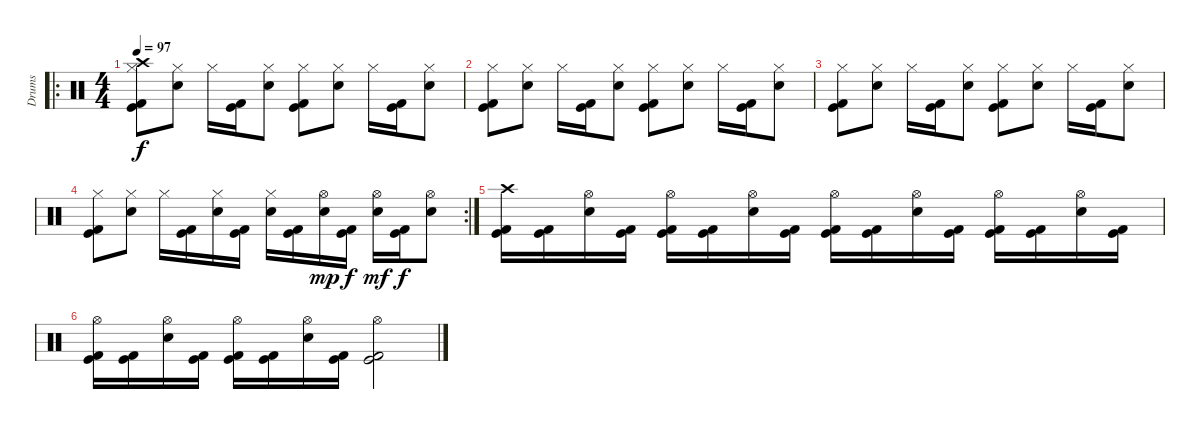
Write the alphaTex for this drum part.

\track ("Drums" "Drums") {instrument percussion}
\staff {score}
\articulation defaults
\ro
\ts (4 4)
\tempo 97
\clef neutral
\ks c
("Hi-Hat (closed)" "Crash high (hit)" "Kick (hit) 2" "Kick (hit)").8{dy f} ("Hi-Hat (closed)" "Electric Snare (hit)").8 "Hi-Hat (closed)".16 ("Kick (hit)" "Kick (hit) 2").16 ("Hi-Hat (closed)" "Electric Snare (hit)").8 ("Hi-Hat (closed)" "Kick (hit)" "Kick (hit) 2").8 ("Hi-Hat (closed)" "Electric Snare (hit)").8 "Hi-Hat (closed)".16 ("Kick (hit) 2" "Kick (hit)").16 ("Hi-Hat (closed)" "Electric Snare (hit)").8 |
("Hi-Hat (closed)" "Kick (hit) 2" "Kick (hit)").8 ("Hi-Hat (closed)" "Electric Snare (hit)").8 "Hi-Hat (closed)".16 ("Kick (hit)" "Kick (hit) 2").16 ("Hi-Hat (closed)" "Electric Snare (hit)").8 ("Hi-Hat (closed)" "Kick (hit)" "Kick (hit) 2").8 ("Hi-Hat (closed)" "Electric Snare (hit)").8 "Hi-Hat (closed)".16 ("Kick (hit) 2" "Kick (hit)").16 ("Hi-Hat (closed)" "Electric Snare (hit)").8 |
("Hi-Hat (closed)" "Kick (hit) 2" "Kick (hit)").8 ("Hi-Hat (closed)" "Electric Snare (hit)").8 "Hi-Hat (closed)".16 ("Kick (hit)" "Kick (hit) 2").16 ("Hi-Hat (closed)" "Electric Snare (hit)").8 ("Hi-Hat (closed)" "Kick (hit)" "Kick (hit) 2").8 ("Hi-Hat (closed)" "Electric Snare (hit)").8 "Hi-Hat (closed)".16 ("Kick (hit) 2" "Kick (hit)").16 ("Hi-Hat (closed)" "Electric Snare (hit)").8 |
\rc 2
("Hi-Hat (closed)" "Kick (hit) 2" "Kick (hit)").8 ("Hi-Hat (closed)" "Electric Snare (hit)").8 "Hi-Hat (closed)".16 ("Kick (hit)" "Kick (hit) 2").16 ("Hi-Hat (closed)" "Electric Snare (hit)").16 ("Kick (hit)" "Kick (hit) 2").16 ("Hi-Hat (closed)" "Electric Snare (hit)").16 ("Kick (hit)" "Kick (hit) 2").16 ("Hi-Hat (open)" "Electric Snare (hit)").16{dy mp} ("Kick (hit)" "Kick (hit) 2").16{dy f} ("Hi-Hat (open)" "Electric Snare (hit)").16{dy mf} ("Kick (hit)" "Kick (hit) 2").16{dy f} ("Hi-Hat (open)" "Electric Snare (hit)").8 |
("Crash high (hit)" "Kick (hit)" "Kick (hit) 2").16 ("Kick (hit)" "Kick (hit) 2").16 ("Hi-Hat (open)" "Electric Snare (hit)").16 ("Kick (hit)" "Kick (hit) 2").16 ("Hi-Hat (open)" "Kick (hit)" "Kick (hit) 2").16 ("Kick (hit)" "Kick (hit) 2").16 ("Hi-Hat (open)" "Electric Snare (hit)").16 ("Kick (hit)" "Kick (hit) 2").16 ("Hi-Hat (open)" "Kick (hit)" "Kick (hit) 2").16 ("Kick (hit)" "Kick (hit) 2").16 ("Hi-Hat (open)" "Electric Snare (hit)").16 ("Kick (hit)" "Kick (hit) 2").16 ("Hi-Hat (open)" "Kick (hit)" "Kick (hit) 2").16 ("Kick (hit)" "Kick (hit) 2").16 ("Hi-Hat (open)" "Electric Snare (hit)").16 ("Kick (hit)" "Kick (hit) 2").16 |
("Hi-Hat (open)" "Kick (hit) 2" "Kick (hit)").16 ("Kick (hit) 2" "Kick (hit)").16 ("Hi-Hat (open)" "Electric Snare (hit)").16 ("Kick (hit) 2" "Kick (hit)").16 ("Hi-Hat (open)" "Kick (hit) 2" "Kick (hit)").16 ("Kick (hit) 2" "Kick (hit)").16 ("Hi-Hat (open)" "Electric Snare (hit)").16 ("Kick (hit) 2" "Kick (hit)").16 ("Hi-Hat (open)" "Kick (hit) 2" "Kick (hit)").2
